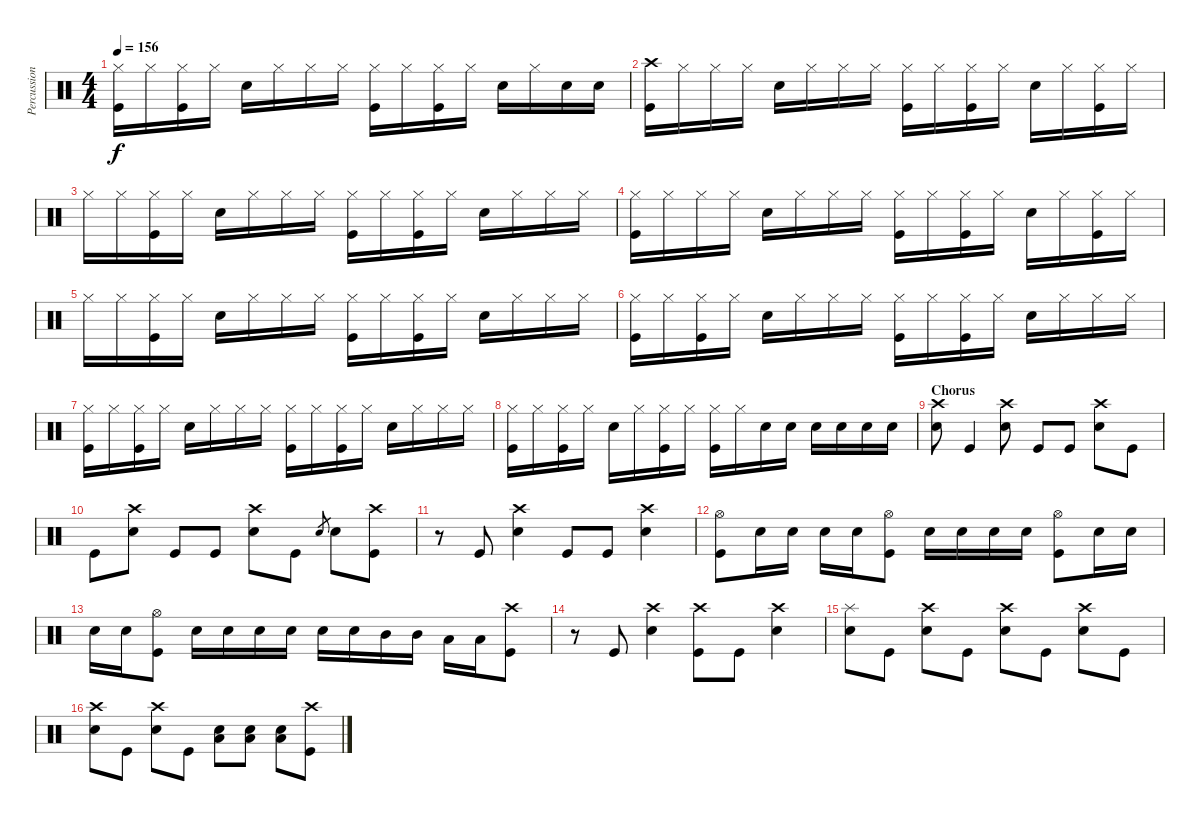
\track ("Percussion" "Percussion") {instrument percussion}
\staff {score}
\articulation defaults
\ts (4 4)
\tempo 156
\clef neutral
\ks c
("Hi-Hat (closed)" "Kick (hit)").16{dy f} "Hi-Hat (closed)".16 ("Hi-Hat (closed)" "Kick (hit)").16 "Hi-Hat (closed)".16 "Snare (hit) 2".16 "Hi-Hat (closed)".16 "Hi-Hat (closed)".16 "Hi-Hat (closed)".16 ("Hi-Hat (closed)" "Kick (hit)").16 "Hi-Hat (closed)".16 ("Hi-Hat (closed)" "Kick (hit)").16 "Hi-Hat (closed)".16 "Snare (hit) 2".16 "Hi-Hat (closed)".16 "Snare (hit) 2".16 "Snare (hit) 2".16 |
("Crash high (hit)" "Kick (hit)").16 "Hi-Hat (closed)".16 "Hi-Hat (closed)".16 "Hi-Hat (closed)".16 "Snare (hit) 2".16 "Hi-Hat (closed)".16 "Hi-Hat (closed)".16 "Hi-Hat (closed)".16 ("Hi-Hat (closed)" "Kick (hit)").16 "Hi-Hat (closed)".16 ("Hi-Hat (closed)" "Kick (hit)").16 "Hi-Hat (closed)".16 "Snare (hit) 2".16 "Hi-Hat (closed)".16 ("Hi-Hat (closed)" "Kick (hit)").16 "Hi-Hat (closed)".16 |
"Hi-Hat (closed)".16 "Hi-Hat (closed)".16 ("Hi-Hat (closed)" "Kick (hit)").16 "Hi-Hat (closed)".16 "Snare (hit) 2".16 "Hi-Hat (closed)".16 "Hi-Hat (closed)".16 "Hi-Hat (closed)".16 ("Hi-Hat (closed)" "Kick (hit)").16 "Hi-Hat (closed)".16 ("Hi-Hat (closed)" "Kick (hit)").16 "Hi-Hat (closed)".16 "Snare (hit) 2".16 "Hi-Hat (closed)".16 "Hi-Hat (closed)".16 "Hi-Hat (closed)".16 |
("Hi-Hat (closed)" "Kick (hit)").16 "Hi-Hat (closed)".16 "Hi-Hat (closed)".16 "Hi-Hat (closed)".16 "Snare (hit) 2".16 "Hi-Hat (closed)".16 "Hi-Hat (closed)".16 "Hi-Hat (closed)".16 ("Hi-Hat (closed)" "Kick (hit)").16 "Hi-Hat (closed)".16 ("Hi-Hat (closed)" "Kick (hit)").16 "Hi-Hat (closed)".16 "Snare (hit) 2".16 "Hi-Hat (closed)".16 ("Hi-Hat (closed)" "Kick (hit)").16 "Hi-Hat (closed)".16 |
"Hi-Hat (closed)".16 "Hi-Hat (closed)".16 ("Hi-Hat (closed)" "Kick (hit)").16 "Hi-Hat (closed)".16 "Snare (hit) 2".16 "Hi-Hat (closed)".16 "Hi-Hat (closed)".16 "Hi-Hat (closed)".16 ("Hi-Hat (closed)" "Kick (hit)").16 "Hi-Hat (closed)".16 ("Hi-Hat (closed)" "Kick (hit)").16 "Hi-Hat (closed)".16 "Snare (hit) 2".16 "Hi-Hat (closed)".16 "Hi-Hat (closed)".16 "Hi-Hat (closed)".16 |
("Hi-Hat (closed)" "Kick (hit)").16{volume 8} "Hi-Hat (closed)".16{volume 16} ("Hi-Hat (closed)" "Kick (hit)").16 "Hi-Hat (closed)".16 "Snare (hit) 2".16 "Hi-Hat (closed)".16 "Hi-Hat (closed)".16 "Hi-Hat (closed)".16 ("Hi-Hat (closed)" "Kick (hit)").16 "Hi-Hat (closed)".16 ("Hi-Hat (closed)" "Kick (hit)").16 "Hi-Hat (closed)".16 "Snare (hit) 2".16 "Hi-Hat (closed)".16 "Hi-Hat (closed)".16 "Hi-Hat (closed)".16 |
("Hi-Hat (closed)" "Kick (hit)").16 "Hi-Hat (closed)".16 ("Hi-Hat (closed)" "Kick (hit)").16 "Hi-Hat (closed)".16 "Snare (hit) 2".16 "Hi-Hat (closed)".16 "Hi-Hat (closed)".16 "Hi-Hat (closed)".16 ("Hi-Hat (closed)" "Kick (hit)").16 "Hi-Hat (closed)".16 ("Hi-Hat (closed)" "Kick (hit)").16 "Hi-Hat (closed)".16 "Snare (hit) 2".16 "Hi-Hat (closed)".16 "Hi-Hat (closed)".16 "Hi-Hat (closed)".16 |
("Hi-Hat (closed)" "Kick (hit)").16 "Hi-Hat (closed)".16 ("Hi-Hat (closed)" "Kick (hit)").16 "Hi-Hat (closed)".16 "Snare (hit) 2".16 "Hi-Hat (closed)".16 ("Hi-Hat (closed)" "Kick (hit)").16 "Hi-Hat (closed)".16 ("Hi-Hat (closed)" "Kick (hit)").16 "Hi-Hat (closed)".16 "Snare (hit) 2".16 "Snare (hit) 2".16 "Snare (hit) 2".16 "Snare (hit) 2".16 "Snare (hit) 2".16 "Snare (hit) 2".16 |
\section ("" "Chorus")
("Crash high (hit)" "Snare (hit) 2").8{volume 16} "Kick (hit)".4 ("Crash high (hit)" "Snare (hit) 2").8 "Kick (hit)".8 "Kick (hit)".8 ("Crash high (hit)" "Snare (hit) 2").8 "Kick (hit)".8 |
"Kick (hit)".8 ("Crash high (hit)" "Snare (hit) 2").8 "Kick (hit)".8 "Kick (hit)".8 ("Crash high (hit)" "Snare (hit) 2").8 "Kick (hit)".8 "Snare (hit) 2".8{gr} "Snare (hit) 2".8 ("Crash high (hit)" "Kick (hit)").8 |
r.8 "Kick (hit)".8 ("Crash high (hit)" "Snare (hit) 2").4 "Kick (hit)".8 "Kick (hit)".8 ("Crash high (hit)" "Snare (hit) 2").4 |
("Hi-Hat (open)" "Kick (hit)").8 "Snare (hit) 2".16 "Snare (hit) 2".16 "Snare (hit) 2".16 "Snare (hit) 2".16 ("Hi-Hat (open)" "Kick (hit)").8 "Snare (hit) 2".16 "Snare (hit) 2".16 "Snare (hit) 2".16 "Snare (hit) 2".16 ("Hi-Hat (open)" "Kick (hit)").8 "Snare (hit) 2".16 "Snare (hit) 2".16 |
"Snare (hit) 2".16 "Snare (hit) 2".16 ("Hi-Hat (open)" "Kick (hit)").8 "Snare (hit) 2".16 "Snare (hit) 2".16 "Snare (hit) 2".16 "Snare (hit) 2".16 "Snare (hit) 2".16 "Snare (hit) 2".16 "Mid Tom (hit)".16 "Mid Tom (hit)".16 "Low Tom (hit)".16 "Low Tom (hit)".16 ("Crash high (hit)" "Kick (hit)").8 |
r.8 "Kick (hit)".8 ("Crash high (hit)" "Snare (hit) 2").4 ("Crash high (hit)" "Kick (hit)").8 "Kick (hit)".8 ("Crash high (hit)" "Snare (hit) 2").4 |
("Splash (hit)" "Snare (hit) 2").8 "Kick (hit)".8 ("Crash high (hit)" "Snare (hit) 2").8 "Kick (hit)".8 ("Crash high (hit)" "Snare (hit) 2").8 "Kick (hit)".8 ("Crash high (hit)" "Snare (hit) 2").8 "Kick (hit)".8 |
("Crash high (hit)" "Snare (hit) 2").8 "Kick (hit)".8 ("Crash high (hit)" "Snare (hit) 2").8 "Kick (hit)".8 ("Snare (hit) 2" "Low Tom (hit)").8 ("Snare (hit) 2" "Low Tom (hit)").8 ("Snare (hit) 2" "Low Tom (hit)").8 ("Crash high (hit)" "Kick (hit)").8
